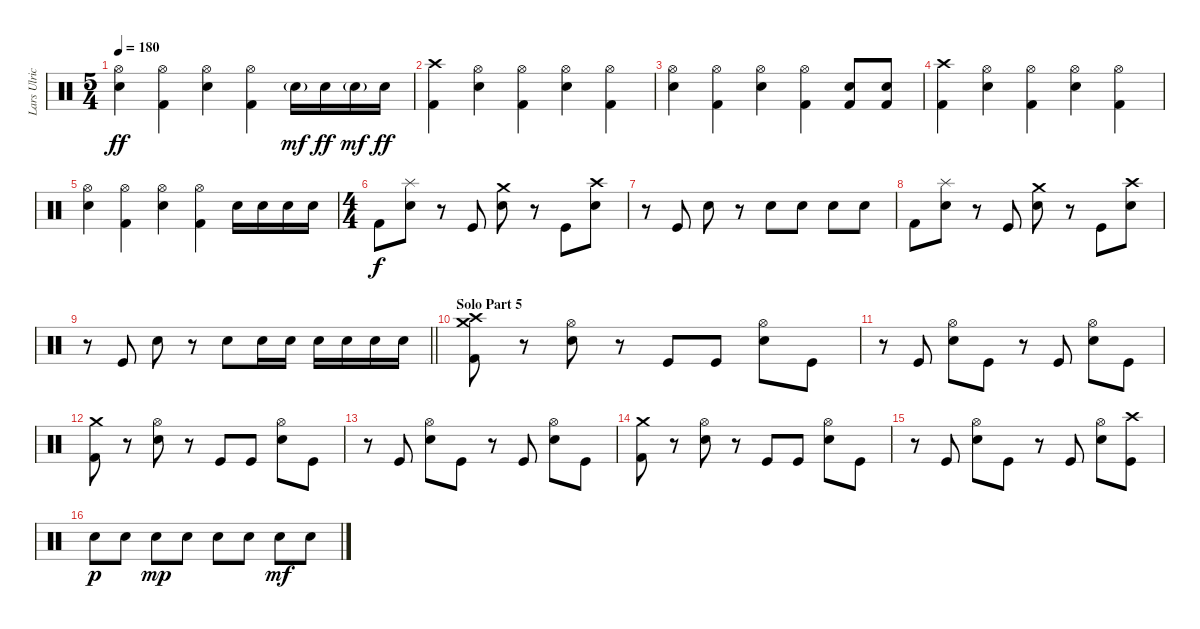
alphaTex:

\track ("Lars Ulrich" "Lars Ulric") {instrument percussion}
\staff {score}
\articulation defaults
\ts (5 4)
\tempo 180
\clef neutral
\ks c
("Hi-Hat (open)" "Electric Snare (hit)").4{dy ff} ("Hi-Hat (open)" "Kick (hit) 2").4 ("Hi-Hat (open)" "Electric Snare (hit)").4 ("Hi-Hat (open)" "Kick (hit) 2").4 "Electric Snare (hit)"{g}.16{dy mf} "Electric Snare (hit)".16{dy ff} "Electric Snare (hit)"{g}.16{dy mf} "Electric Snare (hit)".16{dy ff} |
("Crash high (hit)" "Kick (hit) 2").4 ("Hi-Hat (open)" "Electric Snare (hit)").4 ("Hi-Hat (open)" "Kick (hit) 2").4 ("Hi-Hat (open)" "Electric Snare (hit)").4 ("Hi-Hat (open)" "Kick (hit) 2").4 |
("Hi-Hat (open)" "Electric Snare (hit)").4 ("Hi-Hat (open)" "Kick (hit) 2").4 ("Hi-Hat (open)" "Electric Snare (hit)").4 ("Hi-Hat (open)" "Kick (hit) 2").4 ("Electric Snare (hit)" "Kick (hit) 2").8 ("Electric Snare (hit)" "Kick (hit) 2").8 |
("Crash high (hit)" "Kick (hit) 2").4 ("Hi-Hat (open)" "Electric Snare (hit)").4 ("Hi-Hat (open)" "Kick (hit) 2").4 ("Hi-Hat (open)" "Electric Snare (hit)").4 ("Hi-Hat (open)" "Kick (hit) 2").4 |
("Hi-Hat (open)" "Electric Snare (hit)").4 ("Hi-Hat (open)" "Kick (hit) 2").4 ("Hi-Hat (open)" "Electric Snare (hit)").4 ("Hi-Hat (open)" "Kick (hit) 2").4 "Electric Snare (hit)".16 "Electric Snare (hit)".16 "Electric Snare (hit)".16 "Electric Snare (hit)".16 |
\ts (4 4)
"Kick (hit) 2".8{dy f} ("Splash (hit)" "Electric Snare (hit)").8 r.8 "Kick (hit)".8 ("Crash medium (hit)" "Electric Snare (hit)").8 r.8 "Kick (hit)".8 ("Crash high (hit)" "Electric Snare (hit)").8 |
r.8 "Kick (hit)".8 "Electric Snare (hit)".8 r.8 "Electric Snare (hit)".8 "Electric Snare (hit)".8 "Electric Snare (hit)".8 "Electric Snare (hit)".8 |
"Kick (hit) 2".8 ("Splash (hit)" "Electric Snare (hit)").8 r.8 "Kick (hit)".8 ("Crash medium (hit)" "Electric Snare (hit)").8 r.8 "Kick (hit)".8 ("Crash high (hit)" "Electric Snare (hit)").8 |
\barLineRight lightlight
r.8 "Kick (hit)".8 "Electric Snare (hit)".8 r.8 "Electric Snare (hit)".8 "Electric Snare (hit)".16 "Electric Snare (hit)".16 "Electric Snare (hit)".16 "Electric Snare (hit)".16 "Electric Snare (hit)".16 "Electric Snare (hit)".16 |
\section ("" "Solo Part 5")
("Crash medium (hit)" "Crash high (hit)" "Kick (hit) 2").8 r.8 ("Hi-Hat (open)" "Electric Snare (hit)").8 r.8 "Kick (hit)".8 "Kick (hit)".8 ("Hi-Hat (open)" "Electric Snare (hit)").8 "Kick (hit)".8 |
r.8 "Kick (hit)".8 ("Hi-Hat (open)" "Electric Snare (hit)").8 "Kick (hit)".8 r.8 "Kick (hit)".8 ("Hi-Hat (open)" "Electric Snare (hit)").8 "Kick (hit)".8 |
("Crash medium (hit)" "Kick (hit) 2").8 r.8 ("Hi-Hat (open)" "Electric Snare (hit)").8 r.8 "Kick (hit)".8 "Kick (hit)".8 ("Hi-Hat (open)" "Electric Snare (hit)").8 "Kick (hit)".8 |
r.8 "Kick (hit)".8 ("Hi-Hat (open)" "Electric Snare (hit)").8 "Kick (hit)".8 r.8 "Kick (hit)".8 ("Hi-Hat (open)" "Electric Snare (hit)").8 "Kick (hit)".8 |
("Crash medium (hit)" "Kick (hit) 2").8 r.8 ("Hi-Hat (open)" "Electric Snare (hit)").8 r.8 "Kick (hit)".8 "Kick (hit)".8 ("Hi-Hat (open)" "Electric Snare (hit)").8 "Kick (hit)".8 |
r.8 "Kick (hit)".8 ("Hi-Hat (open)" "Electric Snare (hit)").8 "Kick (hit)".8 r.8 "Kick (hit)".8 ("Hi-Hat (open)" "Electric Snare (hit)").8 ("Crash high (hit)" "Kick (hit)").8 |
"Electric Snare (hit)".8{dy p} "Electric Snare (hit)".8 "Electric Snare (hit)".8{dy mp} "Electric Snare (hit)".8 "Electric Snare (hit)".8 "Electric Snare (hit)".8 "Electric Snare (hit)".8{dy mf} "Electric Snare (hit)".8
